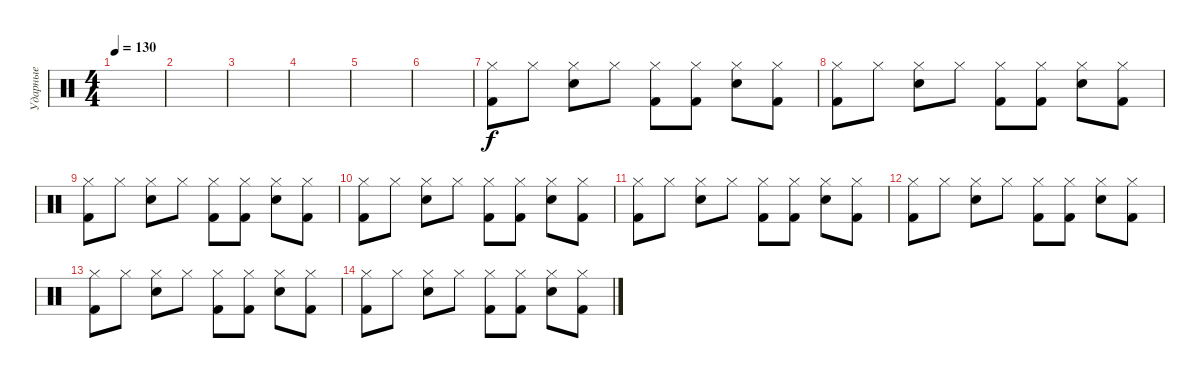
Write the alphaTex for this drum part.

\track ("Ударные" "Ударные") {instrument percussion}
\staff {score}
\articulation defaults
\ts (4 4)
\tempo 130
\clef neutral
\ks c
|
|
|
|
|
|
("Hi-Hat (closed)" "Kick (hit) 2").8 "Hi-Hat (closed)".8 ("Hi-Hat (closed)" "Snare (hit) 2").8 "Hi-Hat (closed)".8 ("Hi-Hat (closed)" "Kick (hit) 2").8 ("Hi-Hat (closed)" "Kick (hit) 2").8 ("Hi-Hat (closed)" "Snare (hit) 2").8 ("Hi-Hat (closed)" "Kick (hit) 2").8 |
("Hi-Hat (closed)" "Kick (hit) 2").8 "Hi-Hat (closed)".8 ("Hi-Hat (closed)" "Snare (hit) 2").8 "Hi-Hat (closed)".8 ("Hi-Hat (closed)" "Kick (hit) 2").8 ("Hi-Hat (closed)" "Kick (hit) 2").8 ("Hi-Hat (closed)" "Snare (hit) 2").8 ("Hi-Hat (closed)" "Kick (hit) 2").8 |
("Hi-Hat (closed)" "Kick (hit) 2").8 "Hi-Hat (closed)".8 ("Hi-Hat (closed)" "Snare (hit) 2").8 "Hi-Hat (closed)".8 ("Hi-Hat (closed)" "Kick (hit) 2").8 ("Hi-Hat (closed)" "Kick (hit) 2").8 ("Hi-Hat (closed)" "Snare (hit) 2").8 ("Hi-Hat (closed)" "Kick (hit) 2").8 |
("Hi-Hat (closed)" "Kick (hit) 2").8 "Hi-Hat (closed)".8 ("Hi-Hat (closed)" "Snare (hit) 2").8 "Hi-Hat (closed)".8 ("Hi-Hat (closed)" "Kick (hit) 2").8 ("Hi-Hat (closed)" "Kick (hit) 2").8 ("Hi-Hat (closed)" "Snare (hit) 2").8 ("Hi-Hat (closed)" "Kick (hit) 2").8 |
("Hi-Hat (closed)" "Kick (hit) 2").8 "Hi-Hat (closed)".8 ("Hi-Hat (closed)" "Snare (hit) 2").8 "Hi-Hat (closed)".8 ("Hi-Hat (closed)" "Kick (hit) 2").8 ("Hi-Hat (closed)" "Kick (hit) 2").8 ("Hi-Hat (closed)" "Snare (hit) 2").8 ("Hi-Hat (closed)" "Kick (hit) 2").8 |
("Hi-Hat (closed)" "Kick (hit) 2").8 "Hi-Hat (closed)".8 ("Hi-Hat (closed)" "Snare (hit) 2").8 "Hi-Hat (closed)".8 ("Hi-Hat (closed)" "Kick (hit) 2").8 ("Hi-Hat (closed)" "Kick (hit) 2").8 ("Hi-Hat (closed)" "Snare (hit) 2").8 ("Hi-Hat (closed)" "Kick (hit) 2").8 |
("Hi-Hat (closed)" "Kick (hit) 2").8 "Hi-Hat (closed)".8 ("Hi-Hat (closed)" "Snare (hit) 2").8 "Hi-Hat (closed)".8 ("Hi-Hat (closed)" "Kick (hit) 2").8 ("Hi-Hat (closed)" "Kick (hit) 2").8 ("Hi-Hat (closed)" "Snare (hit) 2").8 ("Hi-Hat (closed)" "Kick (hit) 2").8 |
("Hi-Hat (closed)" "Kick (hit) 2").8 "Hi-Hat (closed)".8 ("Hi-Hat (closed)" "Snare (hit) 2").8 "Hi-Hat (closed)".8 ("Hi-Hat (closed)" "Kick (hit) 2").8 ("Hi-Hat (closed)" "Kick (hit) 2").8 ("Hi-Hat (closed)" "Snare (hit) 2").8 ("Hi-Hat (closed)" "Kick (hit) 2").8
